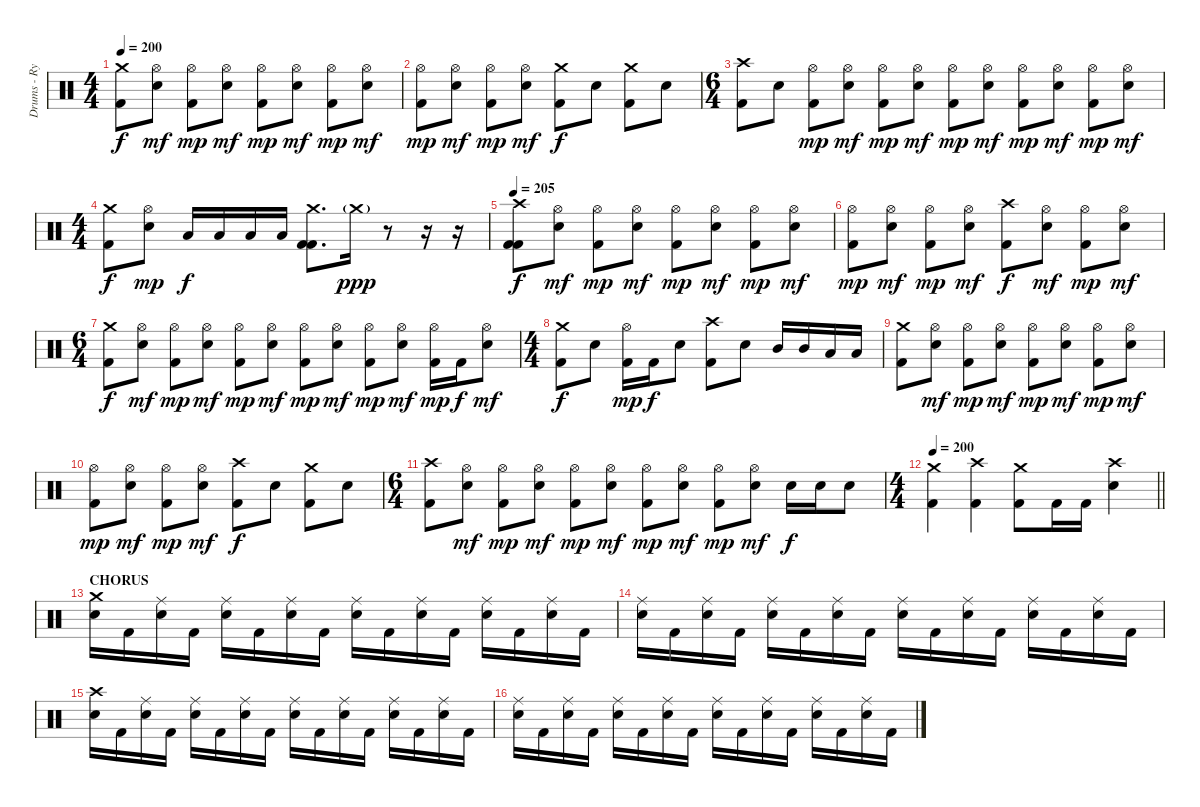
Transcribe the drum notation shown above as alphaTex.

\track ("Drums - Ryan Bates" "Drums - Ry") {instrument percussion}
\staff {score}
\articulation defaults
\ts (4 4)
\tempo 200
\clef neutral
\ks c
("Crash medium (hit)" "Kick (hit) 2").8{dy f} ("Hi-Hat (open)" "Snare (hit) 2").8{dy mf} ("Hi-Hat (open)" "Kick (hit) 2").8{dy mp} ("Hi-Hat (open)" "Snare (hit) 2").8{dy mf} ("Hi-Hat (open)" "Kick (hit) 2").8{dy mp} ("Hi-Hat (open)" "Snare (hit) 2").8{dy mf} ("Hi-Hat (open)" "Kick (hit) 2").8{dy mp} ("Hi-Hat (open)" "Snare (hit) 2").8{dy mf} |
("Hi-Hat (open)" "Kick (hit) 2").8{dy mp} ("Hi-Hat (open)" "Snare (hit) 2").8{dy mf} ("Hi-Hat (open)" "Kick (hit) 2").8{dy mp} ("Hi-Hat (open)" "Snare (hit) 2").8{dy mf} ("Crash medium (hit)" "Kick (hit) 2").8{dy f} "Snare (hit) 2".8 ("Crash medium (hit)" "Kick (hit) 2").8 "Snare (hit) 2".8 |
\ts (6 4)
("Crash high (hit)" "Kick (hit) 2").8 "Snare (hit) 2".8 ("Hi-Hat (open)" "Kick (hit) 2").8{dy mp} ("Hi-Hat (open)" "Snare (hit) 2").8{dy mf} ("Hi-Hat (open)" "Kick (hit) 2").8{dy mp} ("Hi-Hat (open)" "Snare (hit) 2").8{dy mf} ("Hi-Hat (open)" "Kick (hit) 2").8{dy mp} ("Hi-Hat (open)" "Snare (hit) 2").8{dy mf} ("Hi-Hat (open)" "Kick (hit) 2").8{dy mp} ("Hi-Hat (open)" "Snare (hit) 2").8{dy mf} ("Hi-Hat (open)" "Kick (hit) 2").8{dy mp} ("Hi-Hat (open)" "Snare (hit) 2").8{dy mf} |
\ts (4 4)
("Crash medium (hit)" "Kick (hit) 2").8{dy f} ("Hi-Hat (open)" "Snare (hit) 2").8{dy mp} "Low Tom (hit)".16{dy f} "Low Tom (hit)".16 "Low Tom (hit)".16 "Low Tom (hit)".16 ("Crash medium (hit)" "Kick (hit) 2" "Kick (hit) 2").8{d} "Crash medium (hit)"{g}.16{dy ppp} r.8 r.16 r.16 |
\tempo 205
("Crash high (hit)" "Kick (hit) 2" "Kick (hit) 2").8{dy f} ("Hi-Hat (open)" "Snare (hit) 2").8{dy mf} ("Hi-Hat (open)" "Kick (hit) 2").8{dy mp} ("Hi-Hat (open)" "Snare (hit) 2").8{dy mf} ("Hi-Hat (open)" "Kick (hit) 2").8{dy mp} ("Hi-Hat (open)" "Snare (hit) 2").8{dy mf} ("Hi-Hat (open)" "Kick (hit) 2").8{dy mp} ("Hi-Hat (open)" "Snare (hit) 2").8{dy mf} |
("Hi-Hat (open)" "Kick (hit) 2").8{dy mp} ("Hi-Hat (open)" "Snare (hit) 2").8{dy mf} ("Hi-Hat (open)" "Kick (hit) 2").8{dy mp} ("Hi-Hat (open)" "Snare (hit) 2").8{dy mf} ("Crash high (hit)" "Kick (hit) 2").8{dy f} ("Hi-Hat (open)" "Snare (hit) 2").8{dy mf} ("Hi-Hat (open)" "Kick (hit) 2").8{dy mp} ("Hi-Hat (open)" "Snare (hit) 2").8{dy mf} |
\ts (6 4)
("Crash medium (hit)" "Kick (hit) 2").8{dy f} ("Hi-Hat (open)" "Snare (hit) 2").8{dy mf} ("Hi-Hat (open)" "Kick (hit) 2").8{dy mp} ("Hi-Hat (open)" "Snare (hit) 2").8{dy mf} ("Hi-Hat (open)" "Kick (hit) 2").8{dy mp} ("Hi-Hat (open)" "Snare (hit) 2").8{dy mf} ("Hi-Hat (open)" "Kick (hit) 2").8{dy mp} ("Hi-Hat (open)" "Snare (hit) 2").8{dy mf} ("Hi-Hat (open)" "Kick (hit) 2").8{dy mp} ("Hi-Hat (open)" "Snare (hit) 2").8{dy mf} ("Hi-Hat (open)" "Kick (hit) 2").16{dy mp} "Kick (hit) 2".16{dy f} ("Hi-Hat (open)" "Snare (hit) 2").8{dy mf} |
\ts (4 4)
("Crash medium (hit)" "Kick (hit) 2").8{dy f} "Snare (hit) 2".8 ("Hi-Hat (open)" "Kick (hit) 2").16{dy mp} "Kick (hit) 2".16{dy f} "Snare (hit) 2".8 ("Crash high (hit)" "Kick (hit) 2").8 "Snare (hit) 2".8 "Mid Tom (hit)".16 "Mid Tom (hit)".16 "Low Tom (hit)".16 "Low Tom (hit)".16 |
("Crash medium (hit)" "Kick (hit) 2").8 ("Hi-Hat (open)" "Snare (hit) 2").8{dy mf} ("Hi-Hat (open)" "Kick (hit) 2").8{dy mp} ("Hi-Hat (open)" "Snare (hit) 2").8{dy mf} ("Hi-Hat (open)" "Kick (hit) 2").8{dy mp} ("Hi-Hat (open)" "Snare (hit) 2").8{dy mf} ("Hi-Hat (open)" "Kick (hit) 2").8{dy mp} ("Hi-Hat (open)" "Snare (hit) 2").8{dy mf} |
("Hi-Hat (open)" "Kick (hit) 2").8{dy mp} ("Hi-Hat (open)" "Snare (hit) 2").8{dy mf} ("Hi-Hat (open)" "Kick (hit) 2").8{dy mp} ("Hi-Hat (open)" "Snare (hit) 2").8{dy mf} ("Crash high (hit)" "Kick (hit) 2").8{dy f} "Snare (hit) 2".8 ("Crash medium (hit)" "Kick (hit) 2").8 "Snare (hit) 2".8 |
\ts (6 4)
("Crash high (hit)" "Kick (hit) 2").8 ("Hi-Hat (open)" "Snare (hit) 2").8{dy mf} ("Hi-Hat (open)" "Kick (hit) 2").8{dy mp} ("Hi-Hat (open)" "Snare (hit) 2").8{dy mf} ("Hi-Hat (open)" "Kick (hit) 2").8{dy mp} ("Hi-Hat (open)" "Snare (hit) 2").8{dy mf} ("Hi-Hat (open)" "Kick (hit) 2").8{dy mp} ("Hi-Hat (open)" "Snare (hit) 2").8{dy mf} ("Hi-Hat (open)" "Kick (hit) 2").8{dy mp} ("Hi-Hat (open)" "Snare (hit) 2").8{dy mf} "Snare (hit) 2".16{dy f} "Snare (hit) 2".16 "Snare (hit) 2".8 |
\ts (4 4)
\tempo 200
\barLineRight lightlight
("Crash medium (hit)" "Kick (hit) 2").4 ("Crash high (hit)" "Kick (hit) 2").4 ("Crash medium (hit)" "Kick (hit) 2").8 "Kick (hit) 2".16 "Kick (hit) 2".16 ("Crash high (hit)" "Snare (hit) 2").4 |
\section ("" "CHORUS")
("Crash medium (hit)" "Snare (hit) 2").16 "Kick (hit) 2".16 ("Ride (middle)" "Snare (hit) 2").16 "Kick (hit) 2".16 ("Ride (middle)" "Snare (hit) 2").16 "Kick (hit) 2".16 ("Ride (middle)" "Snare (hit) 2").16 "Kick (hit) 2".16 ("Ride (middle)" "Snare (hit) 2").16 "Kick (hit) 2".16 ("Ride (middle)" "Snare (hit) 2").16 "Kick (hit) 2".16 ("Ride (middle)" "Snare (hit) 2").16 "Kick (hit) 2".16 ("Ride (middle)" "Snare (hit) 2").16 "Kick (hit) 2".16 |
("Ride (middle)" "Snare (hit) 2").16 "Kick (hit) 2".16 ("Ride (middle)" "Snare (hit) 2").16 "Kick (hit) 2".16 ("Ride (middle)" "Snare (hit) 2").16 "Kick (hit) 2".16 ("Ride (middle)" "Snare (hit) 2").16 "Kick (hit) 2".16 ("Ride (middle)" "Snare (hit) 2").16 "Kick (hit) 2".16 ("Ride (middle)" "Snare (hit) 2").16 "Kick (hit) 2".16 ("Ride (middle)" "Snare (hit) 2").16 "Kick (hit) 2".16 ("Ride (middle)" "Snare (hit) 2").16 "Kick (hit) 2".16 |
("Crash high (hit)" "Snare (hit) 2").16 "Kick (hit) 2".16 ("Ride (middle)" "Snare (hit) 2").16 "Kick (hit) 2".16 ("Ride (middle)" "Snare (hit) 2").16 "Kick (hit) 2".16 ("Ride (middle)" "Snare (hit) 2").16 "Kick (hit) 2".16 ("Ride (middle)" "Snare (hit) 2").16 "Kick (hit) 2".16 ("Ride (middle)" "Snare (hit) 2").16 "Kick (hit) 2".16 ("Ride (middle)" "Snare (hit) 2").16 "Kick (hit) 2".16 ("Ride (middle)" "Snare (hit) 2").16 "Kick (hit) 2".16 |
("Ride (middle)" "Snare (hit) 2").16 "Kick (hit) 2".16 ("Ride (middle)" "Snare (hit) 2").16 "Kick (hit) 2".16 ("Ride (middle)" "Snare (hit) 2").16 "Kick (hit) 2".16 ("Ride (middle)" "Snare (hit) 2").16 "Kick (hit) 2".16 ("Ride (middle)" "Snare (hit) 2").16 "Kick (hit) 2".16 ("Ride (middle)" "Snare (hit) 2").16 "Kick (hit) 2".16 ("Ride (middle)" "Snare (hit) 2").16 "Kick (hit) 2".16 ("Ride (middle)" "Snare (hit) 2").16 "Kick (hit) 2".16
